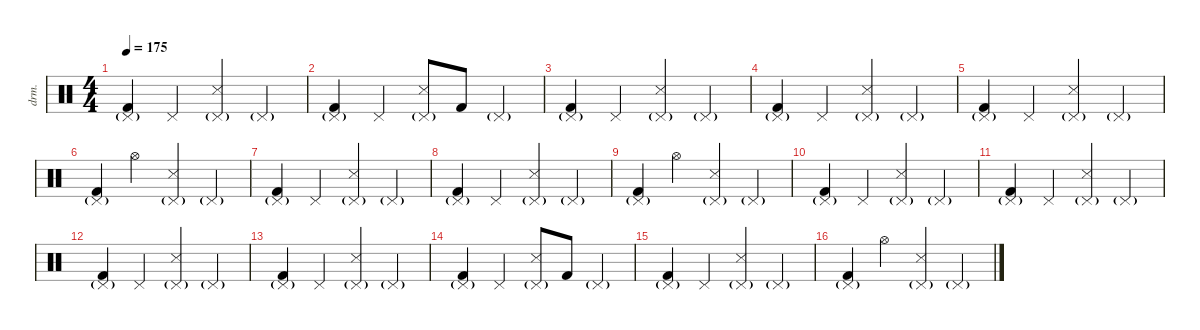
\defaultSystemsLayout 4
\hideDynamics
\bracketExtendMode nobrackets
\otherSystemsTrackNameOrientation horizontal
\track ("Percussion" "drm.") {instrument percussion}
\staff {score}
\articulation defaults
\ts (4 4)
\tempo 175
\clef neutral
\ks c
("Pedal Hi-Hat (hit)"{g} "Kick (hit) 2").4{dy f} "Pedal Hi-Hat (hit)".4 ("Pedal Hi-Hat (hit)"{g} "Snare (side stick) 3").4 "Pedal Hi-Hat (hit)"{g}.4 |
("Pedal Hi-Hat (hit)"{g} "Kick (hit) 2").4 "Pedal Hi-Hat (hit)".4 ("Pedal Hi-Hat (hit)"{g} "Snare (side stick) 3").8 "Kick (hit) 2".8 "Pedal Hi-Hat (hit)"{g}.4 |
("Pedal Hi-Hat (hit)"{g} "Kick (hit) 2").4 "Pedal Hi-Hat (hit)".4 ("Pedal Hi-Hat (hit)"{g} "Snare (side stick) 3").4 "Pedal Hi-Hat (hit)"{g}.4 |
("Pedal Hi-Hat (hit)"{g} "Kick (hit) 2").4 "Pedal Hi-Hat (hit)".4 ("Pedal Hi-Hat (hit)"{g} "Snare (side stick) 3").4 "Pedal Hi-Hat (hit)"{g}.4 |
("Pedal Hi-Hat (hit)"{g} "Kick (hit) 2").4 "Pedal Hi-Hat (hit)".4 ("Pedal Hi-Hat (hit)"{g} "Snare (side stick) 3").4 "Pedal Hi-Hat (hit)"{g}.4 |
("Pedal Hi-Hat (hit)"{g} "Kick (hit) 2").4 "Hi-Hat (open)".4 ("Pedal Hi-Hat (hit)"{g} "Snare (side stick) 3").4 "Pedal Hi-Hat (hit)"{g}.4 |
("Pedal Hi-Hat (hit)"{g} "Kick (hit) 2").4 "Pedal Hi-Hat (hit)".4 ("Pedal Hi-Hat (hit)"{g} "Snare (side stick) 3").4 "Pedal Hi-Hat (hit)"{g}.4 |
("Pedal Hi-Hat (hit)"{g} "Kick (hit) 2").4 "Pedal Hi-Hat (hit)".4 ("Pedal Hi-Hat (hit)"{g} "Snare (side stick) 3").4 "Pedal Hi-Hat (hit)"{g}.4 |
("Pedal Hi-Hat (hit)"{g} "Kick (hit) 2").4 "Hi-Hat (open)".4 ("Pedal Hi-Hat (hit)"{g} "Snare (side stick) 3").4 "Pedal Hi-Hat (hit)"{g}.4 |
("Pedal Hi-Hat (hit)"{g} "Kick (hit) 2").4 "Pedal Hi-Hat (hit)".4 ("Pedal Hi-Hat (hit)"{g} "Snare (side stick) 3").4 "Pedal Hi-Hat (hit)"{g}.4 |
("Pedal Hi-Hat (hit)"{g} "Kick (hit) 2").4 "Pedal Hi-Hat (hit)".4 ("Pedal Hi-Hat (hit)"{g} "Snare (side stick) 3").4 "Pedal Hi-Hat (hit)"{g}.4 |
("Pedal Hi-Hat (hit)"{g} "Kick (hit) 2").4 "Pedal Hi-Hat (hit)".4 ("Pedal Hi-Hat (hit)"{g} "Snare (side stick) 3").4 "Pedal Hi-Hat (hit)"{g}.4 |
("Pedal Hi-Hat (hit)"{g} "Kick (hit) 2").4 "Pedal Hi-Hat (hit)".4 ("Pedal Hi-Hat (hit)"{g} "Snare (side stick) 3").4 "Pedal Hi-Hat (hit)"{g}.4 |
("Pedal Hi-Hat (hit)"{g} "Kick (hit) 2").4 "Pedal Hi-Hat (hit)".4 ("Pedal Hi-Hat (hit)"{g} "Snare (side stick) 3").8 "Kick (hit) 2".8 "Pedal Hi-Hat (hit)"{g}.4 |
("Pedal Hi-Hat (hit)"{g} "Kick (hit) 2").4 "Pedal Hi-Hat (hit)".4 ("Pedal Hi-Hat (hit)"{g} "Snare (side stick) 3").4 "Pedal Hi-Hat (hit)"{g}.4 |
("Pedal Hi-Hat (hit)"{g} "Kick (hit) 2").4 "Hi-Hat (open)".4 ("Pedal Hi-Hat (hit)"{g} "Snare (side stick) 3").4 "Pedal Hi-Hat (hit)"{g}.4
